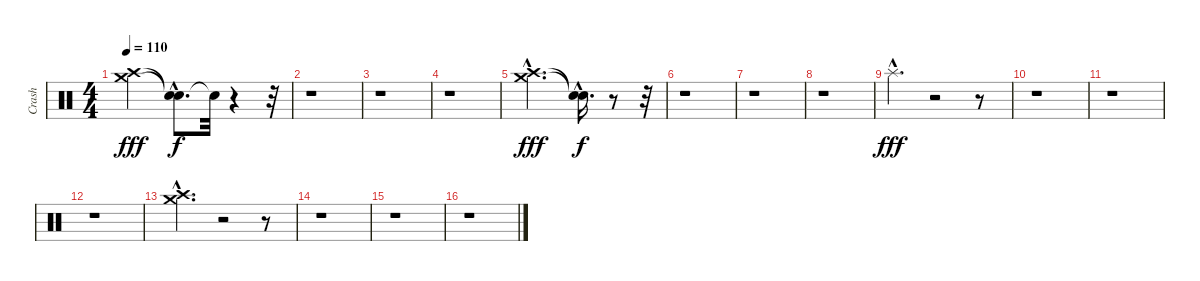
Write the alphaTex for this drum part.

\track ("Crash" "Crash") {instrument percussion}
\staff {score}
\articulation defaults
\ts (4 4)
\tempo 110
\clef neutral
\ks c
("Crash high (hit)" "Crash medium (hit)").2{dy fff} ("Snare (hit)"{hac t} "Snare (hit)"{hac t}).8{d dy f} "Snare (hit)"{t}.32 r.4 r.32 |
r.1 |
r.1 |
r.1 |
("Crash high (hit)"{hac} "Crash medium (hit)"{hac}).2{d dy fff} ("Snare (hit)"{hac t} "Snare (hit)"{hac t}).16{d dy f} r.8 r.32 |
r.1 |
r.1 |
r.1 |
"Splash (hit)"{hac}.4{d dy fff} r.2 r.8 |
r.1 |
r.1 |
r.1 |
("Crash medium (hit)"{hac} "Crash high (hit)").4{d} r.2 r.8 |
r.1 |
r.1 |
r.1
